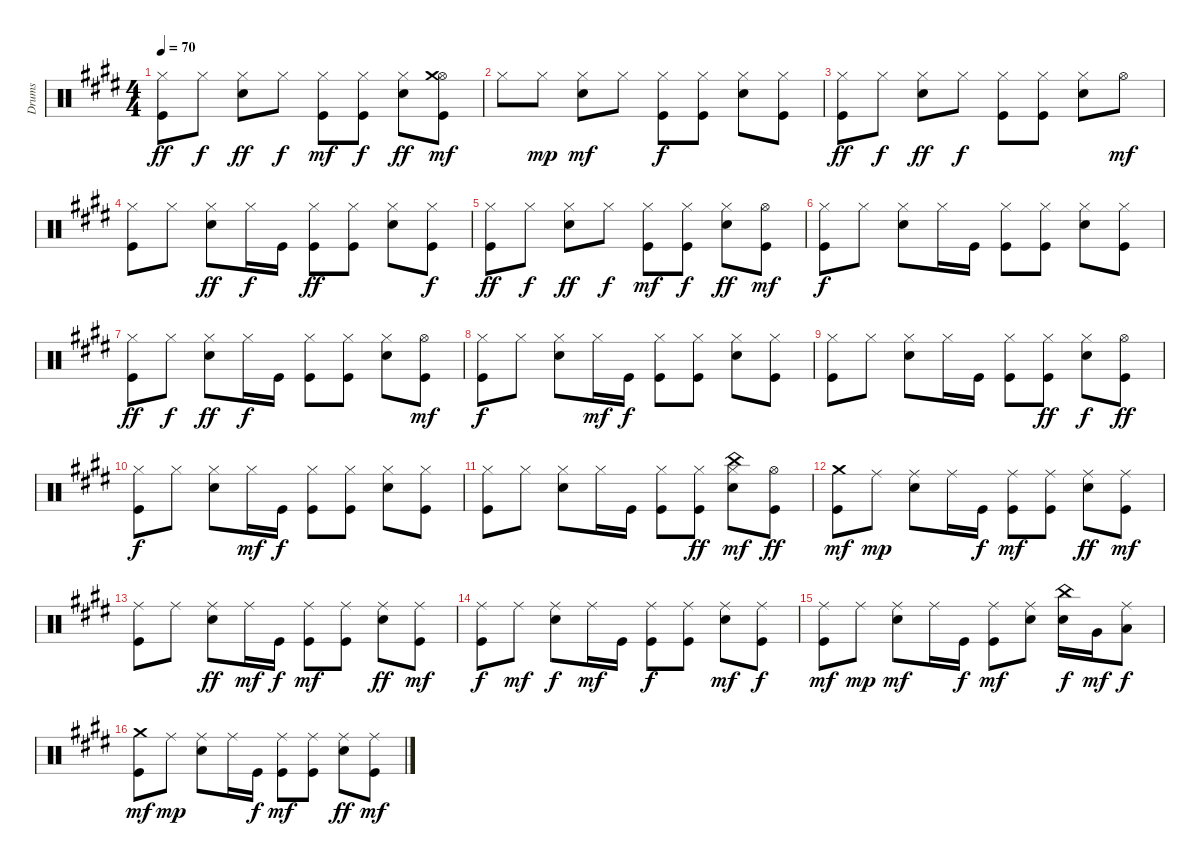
\track ("Drums" "Drums") {instrument percussion}
\staff {score}
\articulation defaults
\ts (4 4)
\tempo 70
\clef neutral
\ks e
("Kick (hit)" "Hi-Hat (closed)").8{dy ff} "Hi-Hat (closed)".8{dy f} ("Snare (hit) 2" "Hi-Hat (closed)").8{dy ff} "Hi-Hat (closed)".8{dy f} ("Kick (hit)" "Hi-Hat (closed)").8{dy mf} ("Kick (hit)" "Hi-Hat (closed)").8{dy f} ("Snare (hit) 2" "Hi-Hat (closed)").8{dy ff} ("Kick (hit)" "Hi-Hat (open)" "Crash medium (hit)").8{dy mf} |
"Hi-Hat (closed)".8 "Hi-Hat (closed)".8{dy mp} ("Snare (hit) 2" "Hi-Hat (closed)").8{dy mf} "Hi-Hat (closed)".8 ("Kick (hit)" "Hi-Hat (closed)").8{dy f} ("Kick (hit)" "Hi-Hat (closed)").8 ("Snare (hit) 2" "Hi-Hat (closed)").8 ("Kick (hit)" "Hi-Hat (closed)").8 |
("Kick (hit)" "Hi-Hat (closed)").8{dy ff} "Hi-Hat (closed)".8{dy f} ("Snare (hit) 2" "Hi-Hat (closed)").8{dy ff} "Hi-Hat (closed)".8{dy f} ("Kick (hit)" "Hi-Hat (closed)").8 ("Kick (hit)" "Hi-Hat (closed)").8 ("Snare (hit) 2" "Hi-Hat (closed)").8 "Hi-Hat (open)".8{dy mf} |
("Kick (hit)" "Hi-Hat (closed)").8 "Hi-Hat (closed)".8 ("Snare (hit) 2" "Hi-Hat (closed)").8{dy ff} "Hi-Hat (closed)".16{dy f} "Kick (hit)".16 ("Kick (hit)" "Hi-Hat (closed)").8{dy ff} ("Kick (hit)" "Hi-Hat (closed)").8 ("Snare (hit) 2" "Hi-Hat (closed)").8 ("Kick (hit)" "Hi-Hat (closed)").8{dy f} |
("Kick (hit)" "Hi-Hat (closed)").8{dy ff} "Hi-Hat (closed)".8{dy f} ("Snare (hit) 2" "Hi-Hat (closed)").8{dy ff} "Hi-Hat (closed)".8{dy f} ("Kick (hit)" "Hi-Hat (closed)").8{dy mf} ("Kick (hit)" "Hi-Hat (closed)").8{dy f} ("Snare (hit) 2" "Hi-Hat (closed)").8{dy ff} ("Kick (hit)" "Hi-Hat (open)").8{dy mf} |
("Kick (hit)" "Hi-Hat (closed)").8{dy f} "Hi-Hat (closed)".8 ("Snare (hit) 2" "Hi-Hat (closed)").8 "Hi-Hat (closed)".16 "Kick (hit)".16 ("Kick (hit)" "Hi-Hat (closed)").8 ("Kick (hit)" "Hi-Hat (closed)").8 ("Snare (hit) 2" "Hi-Hat (closed)").8 ("Kick (hit)" "Hi-Hat (closed)").8 |
("Kick (hit)" "Hi-Hat (closed)").8{dy ff} "Hi-Hat (closed)".8{dy f} ("Snare (hit) 2" "Hi-Hat (closed)").8{dy ff} "Hi-Hat (closed)".16{dy f} "Kick (hit)".16 ("Kick (hit)" "Hi-Hat (closed)").8 ("Kick (hit)" "Hi-Hat (closed)").8 ("Snare (hit) 2" "Hi-Hat (closed)").8 ("Kick (hit)" "Hi-Hat (open)").8{dy mf} |
("Kick (hit)" "Hi-Hat (closed)").8{dy f} "Hi-Hat (closed)".8 ("Snare (hit) 2" "Hi-Hat (closed)").8 "Hi-Hat (closed)".16{dy mf} "Kick (hit)".16{dy f} ("Kick (hit)" "Hi-Hat (closed)").8 ("Kick (hit)" "Hi-Hat (closed)").8 ("Snare (hit) 2" "Hi-Hat (closed)").8 ("Kick (hit)" "Hi-Hat (closed)").8 |
("Kick (hit)" "Hi-Hat (closed)").8 "Hi-Hat (closed)".8 ("Snare (hit) 2" "Hi-Hat (closed)").8 "Hi-Hat (closed)".16 "Kick (hit)".16 ("Kick (hit)" "Hi-Hat (closed)").8 ("Kick (hit)" "Hi-Hat (closed)").8{dy ff} ("Snare (hit) 2" "Hi-Hat (closed)").8{dy f} ("Kick (hit)" "Hi-Hat (open)").8{dy ff} |
("Kick (hit)" "Hi-Hat (closed)").8{dy f} "Hi-Hat (closed)".8 ("Snare (hit) 2" "Hi-Hat (closed)").8 "Hi-Hat (closed)".16{dy mf} "Kick (hit)".16{dy f} ("Kick (hit)" "Hi-Hat (closed)").8 ("Kick (hit)" "Hi-Hat (closed)").8 ("Snare (hit) 2" "Hi-Hat (closed)").8 ("Kick (hit)" "Hi-Hat (closed)").8 |
("Kick (hit)" "Hi-Hat (closed)").8 "Hi-Hat (closed)".8 ("Snare (hit) 2" "Hi-Hat (closed)").8 "Hi-Hat (closed)".16 "Kick (hit)".16 ("Kick (hit)" "Hi-Hat (closed)").8 ("Kick (hit)" "Hi-Hat (closed)").8{dy ff} ("Snare (hit) 2" "Hi-Hat (closed)" "China (hit)").8{dy mf} ("Kick (hit)" "Hi-Hat (open)").8{dy ff} |
("Kick (hit)" "Crash medium (hit)").8{dy mf} "Ride (middle)".8{dy mp} ("Snare (hit) 2" "Ride (middle)").8 "Ride (middle)".16 "Kick (hit)".16{dy f} ("Kick (hit)" "Ride (middle)").8{dy mf} ("Kick (hit)" "Ride (middle)").8 ("Snare (hit) 2" "Ride (middle)").8{dy ff} ("Kick (hit)" "Ride (middle)").8{dy mf} |
("Kick (hit)" "Ride (middle)").8 "Ride (middle)".8 ("Snare (hit) 2" "Ride (middle)").8{dy ff} "Ride (middle)".16{dy mf} "Kick (hit)".16{dy f} ("Kick (hit)" "Ride (middle)").8{dy mf} ("Kick (hit)" "Ride (middle)").8 ("Snare (hit) 2" "Ride (middle)").8{dy ff} ("Kick (hit)" "Ride (middle)").8{dy mf} |
("Kick (hit)" "Ride (middle)").8{dy f} "Ride (middle)".8{dy mf} ("Snare (hit) 2" "Ride (middle)").8{dy f} "Ride (middle)".16{dy mf} "Kick (hit)".16 ("Kick (hit)" "Ride (middle)").8{dy f} ("Kick (hit)" "Ride (middle)").8 ("Snare (hit) 2" "Ride (middle)").8{dy mf} ("Kick (hit)" "Ride (middle)").8{dy f} |
("Kick (hit)" "Ride (middle)").8{dy mf} "Ride (middle)".8{dy mp} ("Snare (hit) 2" "Ride (middle)").8{dy mf} "Ride (middle)".16 "Kick (hit)".16{dy f} ("Kick (hit)" "Ride (middle)").8{dy mf} ("Snare (hit) 2" "Ride (middle)").8 ("Snare (hit) 2" "China (hit)").16{dy f} "Very Low Tom (hit)".16{dy mf} ("Low Floor Tom (hit)" "Ride (middle)").8{dy f} |
("Kick (hit)" "Crash medium (hit)").8{dy mf} "Ride (middle)".8{dy mp} ("Snare (hit) 2" "Ride (middle)").8 "Ride (middle)".16 "Kick (hit)".16{dy f} ("Kick (hit)" "Ride (middle)").8{dy mf} ("Kick (hit)" "Ride (middle)").8 ("Snare (hit) 2" "Ride (middle)").8{dy ff} ("Kick (hit)" "Ride (middle)").8{dy mf}
